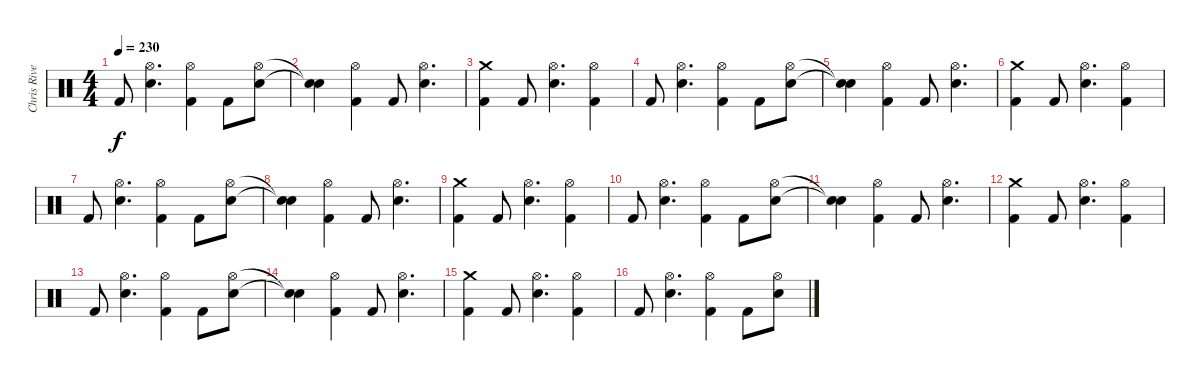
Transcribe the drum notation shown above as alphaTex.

\track ("Chris Rivers" "Chris Rive") {instrument percussion}
\staff {score}
\articulation defaults
\ts (4 4)
\tempo 230
\clef neutral
\ks c "Kick (hit) 2".8{dy f}
("Hi-Hat (open)" "Electric Snare (hit)").4{d} ("Hi-Hat (open)" "Kick (hit) 2").4 "Kick (hit) 2".8 ("Hi-Hat (open)" "Electric Snare (hit)").8 |
("Snare (hit)"{t} "Snare (hit)"{t}).4 ("Hi-Hat (open)" "Kick (hit) 2").4 "Kick (hit) 2".8 ("Hi-Hat (open)" "Electric Snare (hit)").4{d} |
("Crash medium (hit)" "Kick (hit) 2").4 "Kick (hit) 2".8 ("Hi-Hat (open)" "Electric Snare (hit)").4{d} ("Hi-Hat (open)" "Kick (hit) 2").4 |
"Kick (hit) 2".8 ("Hi-Hat (open)" "Electric Snare (hit)").4{d} ("Hi-Hat (open)" "Kick (hit) 2").4 "Kick (hit) 2".8 ("Hi-Hat (open)" "Electric Snare (hit)").8 |
("Snare (hit)"{t} "Snare (hit)"{t}).4 ("Hi-Hat (open)" "Kick (hit) 2").4 "Kick (hit) 2".8 ("Hi-Hat (open)" "Electric Snare (hit)").4{d} |
("Crash medium (hit)" "Kick (hit) 2").4 "Kick (hit) 2".8 ("Hi-Hat (open)" "Electric Snare (hit)").4{d} ("Hi-Hat (open)" "Kick (hit) 2").4 |
"Kick (hit) 2".8 ("Hi-Hat (open)" "Electric Snare (hit)").4{d} ("Hi-Hat (open)" "Kick (hit) 2").4 "Kick (hit) 2".8 ("Hi-Hat (open)" "Electric Snare (hit)").8 |
("Snare (hit)"{t} "Snare (hit)"{t}).4 ("Hi-Hat (open)" "Kick (hit) 2").4 "Kick (hit) 2".8 ("Hi-Hat (open)" "Electric Snare (hit)").4{d} |
("Crash medium (hit)" "Kick (hit) 2").4 "Kick (hit) 2".8 ("Hi-Hat (open)" "Electric Snare (hit)").4{d} ("Hi-Hat (open)" "Kick (hit) 2").4 |
"Kick (hit) 2".8 ("Hi-Hat (open)" "Electric Snare (hit)").4{d} ("Hi-Hat (open)" "Kick (hit) 2").4 "Kick (hit) 2".8 ("Hi-Hat (open)" "Electric Snare (hit)").8 |
("Snare (hit)"{t} "Snare (hit)"{t}).4 ("Hi-Hat (open)" "Kick (hit) 2").4 "Kick (hit) 2".8 ("Hi-Hat (open)" "Electric Snare (hit)").4{d} |
("Crash medium (hit)" "Kick (hit) 2").4 "Kick (hit) 2".8 ("Hi-Hat (open)" "Electric Snare (hit)").4{d} ("Hi-Hat (open)" "Kick (hit) 2").4 |
"Kick (hit) 2".8 ("Hi-Hat (open)" "Electric Snare (hit)").4{d} ("Hi-Hat (open)" "Kick (hit) 2").4 "Kick (hit) 2".8 ("Hi-Hat (open)" "Electric Snare (hit)").8 |
("Snare (hit)"{t} "Snare (hit)"{t}).4 ("Hi-Hat (open)" "Kick (hit) 2").4 "Kick (hit) 2".8 ("Hi-Hat (open)" "Electric Snare (hit)").4{d} |
("Crash medium (hit)" "Kick (hit) 2").4 "Kick (hit) 2".8 ("Hi-Hat (open)" "Electric Snare (hit)").4{d} ("Hi-Hat (open)" "Kick (hit) 2").4 |
"Kick (hit) 2".8 ("Hi-Hat (open)" "Electric Snare (hit)").4{d} ("Hi-Hat (open)" "Kick (hit) 2").4 "Kick (hit) 2".8 ("Hi-Hat (open)" "Electric Snare (hit)").8
